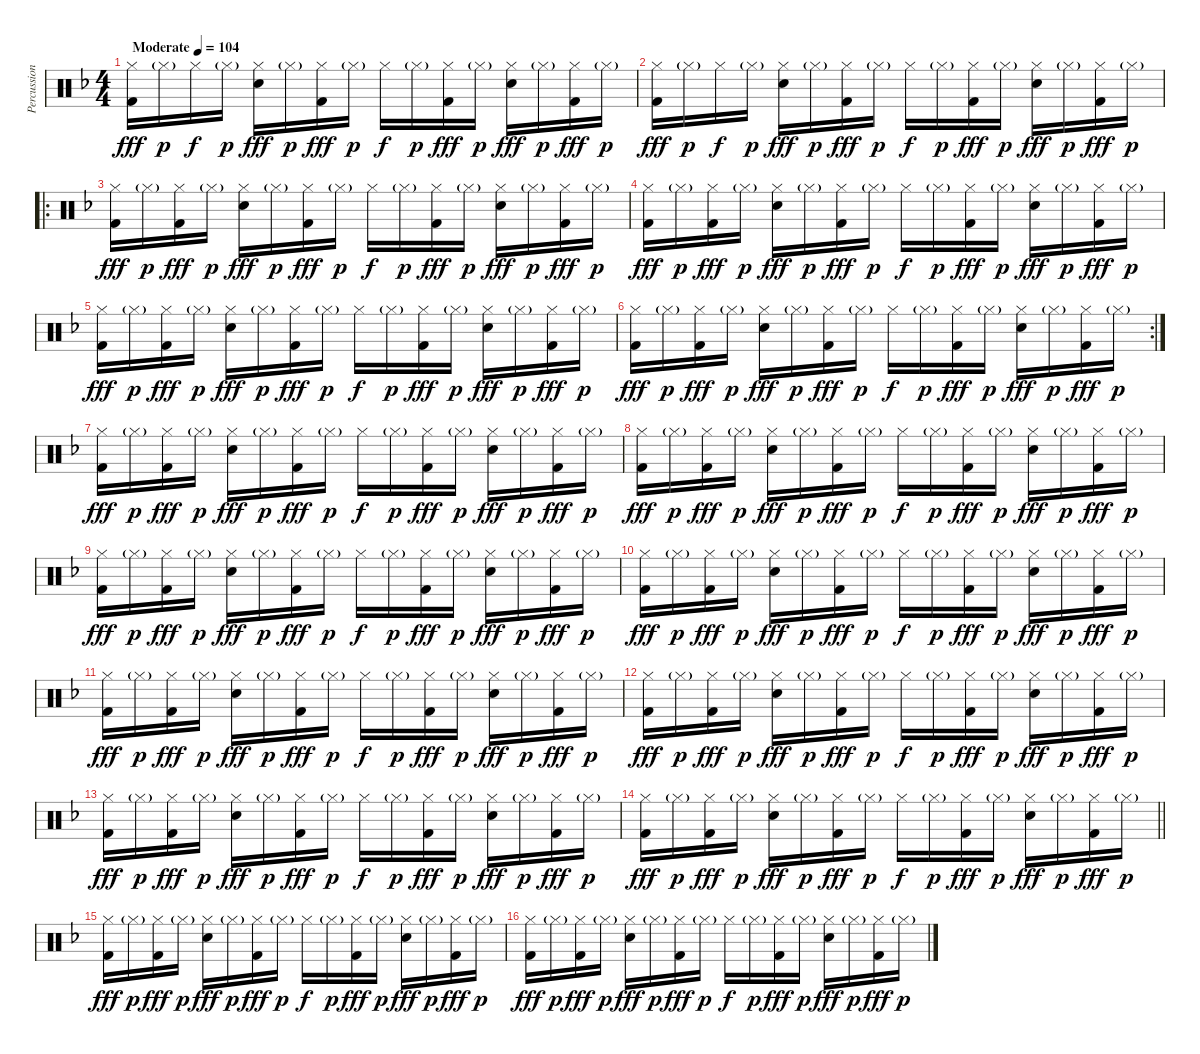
\track ("Percussion" "Percussion") {instrument percussion}
\staff {score}
\articulation defaults
\ts (4 4)
\tempo (104 "Moderate")
\clef neutral
\ks dminor
("Hi-Hat (closed)" "Kick (hit) 2").16{dy fff} "Hi-Hat (closed)"{g}.16{dy p} "Hi-Hat (closed)".16{dy f} "Hi-Hat (closed)"{g}.16{dy p} ("Hi-Hat (closed)" "Snare (hit) 2").16{dy fff} "Hi-Hat (closed)"{g}.16{dy p} ("Hi-Hat (closed)" "Kick (hit) 2").16{dy fff} "Hi-Hat (closed)"{g}.16{dy p} "Hi-Hat (closed)".16{dy f} "Hi-Hat (closed)"{g}.16{dy p} ("Hi-Hat (closed)" "Kick (hit) 2").16{dy fff} "Hi-Hat (closed)"{g}.16{dy p} ("Hi-Hat (closed)" "Snare (hit) 2").16{dy fff} "Hi-Hat (closed)"{g}.16{dy p} ("Hi-Hat (closed)" "Kick (hit) 2").16{dy fff} "Hi-Hat (closed)"{g}.16{dy p} |
("Hi-Hat (closed)" "Kick (hit) 2").16{dy fff} "Hi-Hat (closed)"{g}.16{dy p} "Hi-Hat (closed)".16{dy f} "Hi-Hat (closed)"{g}.16{dy p} ("Hi-Hat (closed)" "Snare (hit) 2").16{dy fff} "Hi-Hat (closed)"{g}.16{dy p} ("Hi-Hat (closed)" "Kick (hit) 2").16{dy fff} "Hi-Hat (closed)"{g}.16{dy p} "Hi-Hat (closed)".16{dy f} "Hi-Hat (closed)"{g}.16{dy p} ("Hi-Hat (closed)" "Kick (hit) 2").16{dy fff} "Hi-Hat (closed)"{g}.16{dy p} ("Hi-Hat (closed)" "Snare (hit) 2").16{dy fff} "Hi-Hat (closed)"{g}.16{dy p} ("Hi-Hat (closed)" "Kick (hit) 2").16{dy fff} "Hi-Hat (closed)"{g}.16{dy p} |
\ro
("Hi-Hat (closed)" "Kick (hit) 2").16{dy fff} "Hi-Hat (closed)"{g}.16{dy p} ("Hi-Hat (closed)" "Kick (hit) 2").16{dy fff} "Hi-Hat (closed)"{g}.16{dy p} ("Hi-Hat (closed)" "Snare (hit) 2").16{dy fff} "Hi-Hat (closed)"{g}.16{dy p} ("Hi-Hat (closed)" "Kick (hit) 2").16{dy fff} "Hi-Hat (closed)"{g}.16{dy p} "Hi-Hat (closed)".16{dy f} "Hi-Hat (closed)"{g}.16{dy p} ("Hi-Hat (closed)" "Kick (hit) 2").16{dy fff} "Hi-Hat (closed)"{g}.16{dy p} ("Hi-Hat (closed)" "Snare (hit) 2").16{dy fff} "Hi-Hat (closed)"{g}.16{dy p} ("Hi-Hat (closed)" "Kick (hit) 2").16{dy fff} "Hi-Hat (closed)"{g}.16{dy p} |
("Hi-Hat (closed)" "Kick (hit) 2").16{dy fff} "Hi-Hat (closed)"{g}.16{dy p} ("Hi-Hat (closed)" "Kick (hit) 2").16{dy fff} "Hi-Hat (closed)"{g}.16{dy p} ("Hi-Hat (closed)" "Snare (hit) 2").16{dy fff} "Hi-Hat (closed)"{g}.16{dy p} ("Hi-Hat (closed)" "Kick (hit) 2").16{dy fff} "Hi-Hat (closed)"{g}.16{dy p} "Hi-Hat (closed)".16{dy f} "Hi-Hat (closed)"{g}.16{dy p} ("Hi-Hat (closed)" "Kick (hit) 2").16{dy fff} "Hi-Hat (closed)"{g}.16{dy p} ("Hi-Hat (closed)" "Snare (hit) 2").16{dy fff} "Hi-Hat (closed)"{g}.16{dy p} ("Hi-Hat (closed)" "Kick (hit) 2").16{dy fff} "Hi-Hat (closed)"{g}.16{dy p} |
("Hi-Hat (closed)" "Kick (hit) 2").16{dy fff} "Hi-Hat (closed)"{g}.16{dy p} ("Hi-Hat (closed)" "Kick (hit) 2").16{dy fff} "Hi-Hat (closed)"{g}.16{dy p} ("Hi-Hat (closed)" "Snare (hit) 2").16{dy fff} "Hi-Hat (closed)"{g}.16{dy p} ("Hi-Hat (closed)" "Kick (hit) 2").16{dy fff} "Hi-Hat (closed)"{g}.16{dy p} "Hi-Hat (closed)".16{dy f} "Hi-Hat (closed)"{g}.16{dy p} ("Hi-Hat (closed)" "Kick (hit) 2").16{dy fff} "Hi-Hat (closed)"{g}.16{dy p} ("Hi-Hat (closed)" "Snare (hit) 2").16{dy fff} "Hi-Hat (closed)"{g}.16{dy p} ("Hi-Hat (closed)" "Kick (hit) 2").16{dy fff} "Hi-Hat (closed)"{g}.16{dy p} |
\rc 2
("Hi-Hat (closed)" "Kick (hit) 2").16{dy fff} "Hi-Hat (closed)"{g}.16{dy p} ("Hi-Hat (closed)" "Kick (hit) 2").16{dy fff} "Hi-Hat (closed)"{g}.16{dy p} ("Hi-Hat (closed)" "Snare (hit) 2").16{dy fff} "Hi-Hat (closed)"{g}.16{dy p} ("Hi-Hat (closed)" "Kick (hit) 2").16{dy fff} "Hi-Hat (closed)"{g}.16{dy p} "Hi-Hat (closed)".16{dy f} "Hi-Hat (closed)"{g}.16{dy p} ("Hi-Hat (closed)" "Kick (hit) 2").16{dy fff} "Hi-Hat (closed)"{g}.16{dy p} ("Hi-Hat (closed)" "Snare (hit) 2").16{dy fff} "Hi-Hat (closed)"{g}.16{dy p} ("Hi-Hat (closed)" "Kick (hit) 2").16{dy fff} "Hi-Hat (closed)"{g}.16{dy p} |
("Hi-Hat (closed)" "Kick (hit) 2").16{dy fff} "Hi-Hat (closed)"{g}.16{dy p} ("Hi-Hat (closed)" "Kick (hit) 2").16{dy fff} "Hi-Hat (closed)"{g}.16{dy p} ("Hi-Hat (closed)" "Snare (hit) 2").16{dy fff} "Hi-Hat (closed)"{g}.16{dy p} ("Hi-Hat (closed)" "Kick (hit) 2").16{dy fff} "Hi-Hat (closed)"{g}.16{dy p} "Hi-Hat (closed)".16{dy f} "Hi-Hat (closed)"{g}.16{dy p} ("Hi-Hat (closed)" "Kick (hit) 2").16{dy fff} "Hi-Hat (closed)"{g}.16{dy p} ("Hi-Hat (closed)" "Snare (hit) 2").16{dy fff} "Hi-Hat (closed)"{g}.16{dy p} ("Hi-Hat (closed)" "Kick (hit) 2").16{dy fff} "Hi-Hat (closed)"{g}.16{dy p} |
("Hi-Hat (closed)" "Kick (hit) 2").16{dy fff} "Hi-Hat (closed)"{g}.16{dy p} ("Hi-Hat (closed)" "Kick (hit) 2").16{dy fff} "Hi-Hat (closed)"{g}.16{dy p} ("Hi-Hat (closed)" "Snare (hit) 2").16{dy fff} "Hi-Hat (closed)"{g}.16{dy p} ("Hi-Hat (closed)" "Kick (hit) 2").16{dy fff} "Hi-Hat (closed)"{g}.16{dy p} "Hi-Hat (closed)".16{dy f} "Hi-Hat (closed)"{g}.16{dy p} ("Hi-Hat (closed)" "Kick (hit) 2").16{dy fff} "Hi-Hat (closed)"{g}.16{dy p} ("Hi-Hat (closed)" "Snare (hit) 2").16{dy fff} "Hi-Hat (closed)"{g}.16{dy p} ("Hi-Hat (closed)" "Kick (hit) 2").16{dy fff} "Hi-Hat (closed)"{g}.16{dy p} |
("Hi-Hat (closed)" "Kick (hit) 2").16{dy fff} "Hi-Hat (closed)"{g}.16{dy p} ("Hi-Hat (closed)" "Kick (hit) 2").16{dy fff} "Hi-Hat (closed)"{g}.16{dy p} ("Hi-Hat (closed)" "Snare (hit) 2").16{dy fff} "Hi-Hat (closed)"{g}.16{dy p} ("Hi-Hat (closed)" "Kick (hit) 2").16{dy fff} "Hi-Hat (closed)"{g}.16{dy p} "Hi-Hat (closed)".16{dy f} "Hi-Hat (closed)"{g}.16{dy p} ("Hi-Hat (closed)" "Kick (hit) 2").16{dy fff} "Hi-Hat (closed)"{g}.16{dy p} ("Hi-Hat (closed)" "Snare (hit) 2").16{dy fff} "Hi-Hat (closed)"{g}.16{dy p} ("Hi-Hat (closed)" "Kick (hit) 2").16{dy fff} "Hi-Hat (closed)"{g}.16{dy p} |
("Hi-Hat (closed)" "Kick (hit) 2").16{dy fff} "Hi-Hat (closed)"{g}.16{dy p} ("Hi-Hat (closed)" "Kick (hit) 2").16{dy fff} "Hi-Hat (closed)"{g}.16{dy p} ("Hi-Hat (closed)" "Snare (hit) 2").16{dy fff} "Hi-Hat (closed)"{g}.16{dy p} ("Hi-Hat (closed)" "Kick (hit) 2").16{dy fff} "Hi-Hat (closed)"{g}.16{dy p} "Hi-Hat (closed)".16{dy f} "Hi-Hat (closed)"{g}.16{dy p} ("Hi-Hat (closed)" "Kick (hit) 2").16{dy fff} "Hi-Hat (closed)"{g}.16{dy p} ("Hi-Hat (closed)" "Snare (hit) 2").16{dy fff} "Hi-Hat (closed)"{g}.16{dy p} ("Hi-Hat (closed)" "Kick (hit) 2").16{dy fff} "Hi-Hat (closed)"{g}.16{dy p} |
("Hi-Hat (closed)" "Kick (hit) 2").16{dy fff} "Hi-Hat (closed)"{g}.16{dy p} ("Hi-Hat (closed)" "Kick (hit) 2").16{dy fff} "Hi-Hat (closed)"{g}.16{dy p} ("Hi-Hat (closed)" "Snare (hit) 2").16{dy fff} "Hi-Hat (closed)"{g}.16{dy p} ("Hi-Hat (closed)" "Kick (hit) 2").16{dy fff} "Hi-Hat (closed)"{g}.16{dy p} "Hi-Hat (closed)".16{dy f} "Hi-Hat (closed)"{g}.16{dy p} ("Hi-Hat (closed)" "Kick (hit) 2").16{dy fff} "Hi-Hat (closed)"{g}.16{dy p} ("Hi-Hat (closed)" "Snare (hit) 2").16{dy fff} "Hi-Hat (closed)"{g}.16{dy p} ("Hi-Hat (closed)" "Kick (hit) 2").16{dy fff} "Hi-Hat (closed)"{g}.16{dy p} |
("Hi-Hat (closed)" "Kick (hit) 2").16{dy fff} "Hi-Hat (closed)"{g}.16{dy p} ("Hi-Hat (closed)" "Kick (hit) 2").16{dy fff} "Hi-Hat (closed)"{g}.16{dy p} ("Hi-Hat (closed)" "Snare (hit) 2").16{dy fff} "Hi-Hat (closed)"{g}.16{dy p} ("Hi-Hat (closed)" "Kick (hit) 2").16{dy fff} "Hi-Hat (closed)"{g}.16{dy p} "Hi-Hat (closed)".16{dy f} "Hi-Hat (closed)"{g}.16{dy p} ("Hi-Hat (closed)" "Kick (hit) 2").16{dy fff} "Hi-Hat (closed)"{g}.16{dy p} ("Hi-Hat (closed)" "Snare (hit) 2").16{dy fff} "Hi-Hat (closed)"{g}.16{dy p} ("Hi-Hat (closed)" "Kick (hit) 2").16{dy fff} "Hi-Hat (closed)"{g}.16{dy p} |
("Hi-Hat (closed)" "Kick (hit) 2").16{dy fff} "Hi-Hat (closed)"{g}.16{dy p} ("Hi-Hat (closed)" "Kick (hit) 2").16{dy fff} "Hi-Hat (closed)"{g}.16{dy p} ("Hi-Hat (closed)" "Snare (hit) 2").16{dy fff} "Hi-Hat (closed)"{g}.16{dy p} ("Hi-Hat (closed)" "Kick (hit) 2").16{dy fff} "Hi-Hat (closed)"{g}.16{dy p} "Hi-Hat (closed)".16{dy f} "Hi-Hat (closed)"{g}.16{dy p} ("Hi-Hat (closed)" "Kick (hit) 2").16{dy fff} "Hi-Hat (closed)"{g}.16{dy p} ("Hi-Hat (closed)" "Snare (hit) 2").16{dy fff} "Hi-Hat (closed)"{g}.16{dy p} ("Hi-Hat (closed)" "Kick (hit) 2").16{dy fff} "Hi-Hat (closed)"{g}.16{dy p} |
\barLineRight lightlight
("Hi-Hat (closed)" "Kick (hit) 2").16{dy fff} "Hi-Hat (closed)"{g}.16{dy p} ("Hi-Hat (closed)" "Kick (hit) 2").16{dy fff} "Hi-Hat (closed)"{g}.16{dy p} ("Hi-Hat (closed)" "Snare (hit) 2").16{dy fff} "Hi-Hat (closed)"{g}.16{dy p} ("Hi-Hat (closed)" "Kick (hit) 2").16{dy fff} "Hi-Hat (closed)"{g}.16{dy p} "Hi-Hat (closed)".16{dy f} "Hi-Hat (closed)"{g}.16{dy p} ("Hi-Hat (closed)" "Kick (hit) 2").16{dy fff} "Hi-Hat (closed)"{g}.16{dy p} ("Hi-Hat (closed)" "Snare (hit) 2").16{dy fff} "Hi-Hat (closed)"{g}.16{dy p} ("Hi-Hat (closed)" "Kick (hit) 2").16{dy fff} "Hi-Hat (closed)"{g}.16{dy p} |
("Hi-Hat (closed)" "Kick (hit) 2").16{dy fff} "Hi-Hat (closed)"{g}.16{dy p} ("Hi-Hat (closed)" "Kick (hit) 2").16{dy fff} "Hi-Hat (closed)"{g}.16{dy p} ("Hi-Hat (closed)" "Snare (hit) 2").16{dy fff} "Hi-Hat (closed)"{g}.16{dy p} ("Hi-Hat (closed)" "Kick (hit) 2").16{dy fff} "Hi-Hat (closed)"{g}.16{dy p} "Hi-Hat (closed)".16{dy f} "Hi-Hat (closed)"{g}.16{dy p} ("Hi-Hat (closed)" "Kick (hit) 2").16{dy fff} "Hi-Hat (closed)"{g}.16{dy p} ("Hi-Hat (closed)" "Snare (hit) 2").16{dy fff} "Hi-Hat (closed)"{g}.16{dy p} ("Hi-Hat (closed)" "Kick (hit) 2").16{dy fff} "Hi-Hat (closed)"{g}.16{dy p} |
("Hi-Hat (closed)" "Kick (hit) 2").16{dy fff} "Hi-Hat (closed)"{g}.16{dy p} ("Hi-Hat (closed)" "Kick (hit) 2").16{dy fff} "Hi-Hat (closed)"{g}.16{dy p} ("Hi-Hat (closed)" "Snare (hit) 2").16{dy fff} "Hi-Hat (closed)"{g}.16{dy p} ("Hi-Hat (closed)" "Kick (hit) 2").16{dy fff} "Hi-Hat (closed)"{g}.16{dy p} "Hi-Hat (closed)".16{dy f} "Hi-Hat (closed)"{g}.16{dy p} ("Hi-Hat (closed)" "Kick (hit) 2").16{dy fff} "Hi-Hat (closed)"{g}.16{dy p} ("Hi-Hat (closed)" "Snare (hit) 2").16{dy fff} "Hi-Hat (closed)"{g}.16{dy p} ("Hi-Hat (closed)" "Kick (hit) 2").16{dy fff} "Hi-Hat (closed)"{g}.16{dy p}
